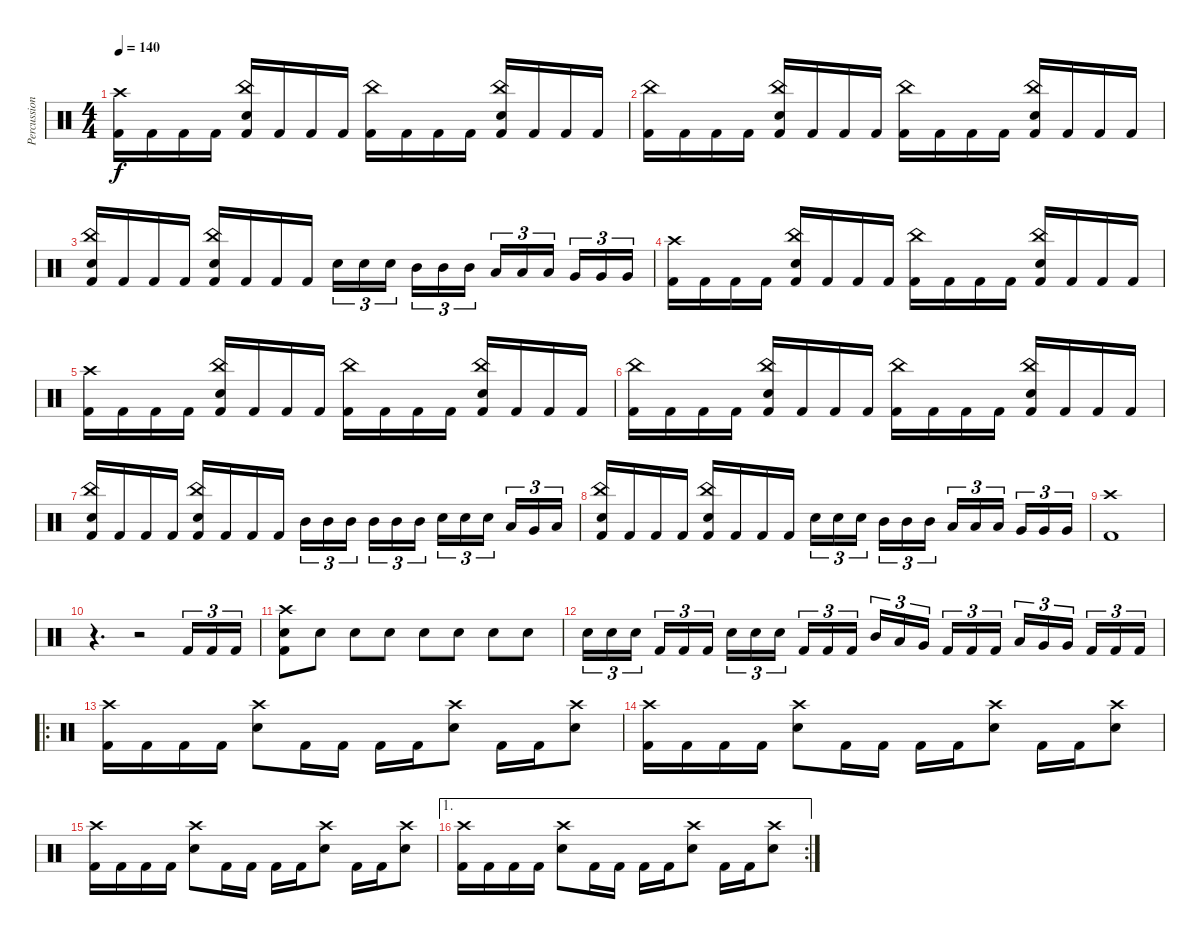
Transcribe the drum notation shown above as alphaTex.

\track ("Percussions" "Percussion") {instrument percussion}
\staff {score}
\articulation defaults
\ts (4 4)
\tempo 140
\clef neutral
\ks c
("Crash high (hit)" "Kick (hit) 2").16{dy f} "Kick (hit) 2".16 "Kick (hit) 2".16 "Kick (hit) 2".16 ("China (hit)" "Snare (hit) 2" "Kick (hit) 2").16 "Kick (hit) 2".16 "Kick (hit) 2".16 "Kick (hit) 2".16 ("China (hit)" "Kick (hit) 2").16 "Kick (hit) 2".16 "Kick (hit) 2".16 "Kick (hit) 2".16 ("China (hit)" "Snare (hit) 2" "Kick (hit) 2").16 "Kick (hit) 2".16 "Kick (hit) 2".16 "Kick (hit) 2".16 |
("China (hit)" "Kick (hit) 2").16 "Kick (hit) 2".16 "Kick (hit) 2".16 "Kick (hit) 2".16 ("China (hit)" "Snare (hit) 2" "Kick (hit) 2").16 "Kick (hit) 2".16 "Kick (hit) 2".16 "Kick (hit) 2".16 ("China (hit)" "Kick (hit) 2").16 "Kick (hit) 2".16 "Kick (hit) 2".16 "Kick (hit) 2".16 ("China (hit)" "Snare (hit) 2" "Kick (hit) 2").16 "Kick (hit) 2".16 "Kick (hit) 2".16 "Kick (hit) 2".16 |
("China (hit)" "Snare (hit) 2" "Kick (hit) 2").16 "Kick (hit) 2".16 "Kick (hit) 2".16 "Kick (hit) 2".16 ("China (hit)" "Snare (hit) 2" "Kick (hit) 2").16 "Kick (hit) 2".16 "Kick (hit) 2".16 "Kick (hit) 2".16 "Snare (hit) 2".16{tu (3 2)} "Snare (hit) 2".16{tu (3 2)} "Snare (hit) 2".16{tu (3 2)} "Mid Tom (hit)".16{tu (3 2)} "Mid Tom (hit)".16{tu (3 2)} "Mid Tom (hit)".16{tu (3 2)} "Low Tom (hit)".16{tu (3 2)} "Low Tom (hit)".16{tu (3 2)} "Low Tom (hit)".16{tu (3 2)} "Very Low Tom (hit)".16{tu (3 2)} "Very Low Tom (hit)".16{tu (3 2)} "Very Low Tom (hit)".16{tu (3 2)} |
("Crash high (hit)" "Kick (hit) 2").16 "Kick (hit) 2".16 "Kick (hit) 2".16 "Kick (hit) 2".16 ("China (hit)" "Snare (hit) 2" "Kick (hit) 2").16 "Kick (hit) 2".16 "Kick (hit) 2".16 "Kick (hit) 2".16 ("China (hit)" "Kick (hit) 2").16 "Kick (hit) 2".16 "Kick (hit) 2".16 "Kick (hit) 2".16 ("China (hit)" "Snare (hit) 2" "Kick (hit) 2").16 "Kick (hit) 2".16 "Kick (hit) 2".16 "Kick (hit) 2".16 |
("Crash high (hit)" "Kick (hit) 2").16 "Kick (hit) 2".16 "Kick (hit) 2".16 "Kick (hit) 2".16 ("China (hit)" "Snare (hit) 2" "Kick (hit) 2").16 "Kick (hit) 2".16 "Kick (hit) 2".16 "Kick (hit) 2".16 ("China (hit)" "Kick (hit) 2").16 "Kick (hit) 2".16 "Kick (hit) 2".16 "Kick (hit) 2".16 ("China (hit)" "Snare (hit) 2" "Kick (hit) 2").16 "Kick (hit) 2".16 "Kick (hit) 2".16 "Kick (hit) 2".16 |
("China (hit)" "Kick (hit) 2").16 "Kick (hit) 2".16 "Kick (hit) 2".16 "Kick (hit) 2".16 ("China (hit)" "Snare (hit) 2" "Kick (hit) 2").16 "Kick (hit) 2".16 "Kick (hit) 2".16 "Kick (hit) 2".16 ("China (hit)" "Kick (hit) 2").16 "Kick (hit) 2".16 "Kick (hit) 2".16 "Kick (hit) 2".16 ("China (hit)" "Snare (hit) 2" "Kick (hit) 2").16 "Kick (hit) 2".16 "Kick (hit) 2".16 "Kick (hit) 2".16 |
("China (hit)" "Snare (hit) 2" "Kick (hit) 2").16 "Kick (hit) 2".16 "Kick (hit) 2".16 "Kick (hit) 2".16 ("China (hit)" "Snare (hit) 2" "Kick (hit) 2").16 "Kick (hit) 2".16 "Kick (hit) 2".16 "Kick (hit) 2".16 "Mid Tom (hit)".16{tu (3 2)} "Mid Tom (hit)".16{tu (3 2)} "Mid Tom (hit)".16{tu (3 2)} "Mid Tom (hit)".16{tu (3 2)} "Mid Tom (hit)".16{tu (3 2)} "Mid Tom (hit)".16{tu (3 2)} "Snare (hit) 2".16{tu (3 2)} "Snare (hit) 2".16{tu (3 2)} "Snare (hit) 2".16{tu (3 2)} "Low Tom (hit)".16{tu (3 2)} "Very Low Tom (hit)".16{tu (3 2)} "Low Floor Tom (hit)".16{tu (3 2)} |
("China (hit)" "Snare (hit) 2" "Kick (hit) 2").16 "Kick (hit) 2".16 "Kick (hit) 2".16 "Kick (hit) 2".16 ("China (hit)" "Snare (hit) 2" "Kick (hit) 2").16 "Kick (hit) 2".16 "Kick (hit) 2".16 "Kick (hit) 2".16 "Snare (hit) 2".16{tu (3 2)} "Snare (hit) 2".16{tu (3 2)} "Snare (hit) 2".16{tu (3 2)} "Mid Tom (hit)".16{tu (3 2)} "Mid Tom (hit)".16{tu (3 2)} "Mid Tom (hit)".16{tu (3 2)} "Low Tom (hit)".16{tu (3 2)} "Low Tom (hit)".16{tu (3 2)} "Low Tom (hit)".16{tu (3 2)} "Very Low Tom (hit)".16{tu (3 2)} "Very Low Tom (hit)".16{tu (3 2)} "Very Low Tom (hit)".16{tu (3 2)} |
("Crash high (hit)" "Kick (hit) 2").1 |
r.4{d} r.2 "Kick (hit) 2".16{tu (3 2)} "Kick (hit) 2".16{tu (3 2)} "Kick (hit) 2".16{tu (3 2)} |
("Crash high (hit)" "Snare (hit) 2" "Kick (hit) 2").8 "Snare (hit) 2".8 "Snare (hit) 2".8 "Snare (hit) 2".8 "Snare (hit) 2".8 "Snare (hit) 2".8 "Snare (hit) 2".8 "Snare (hit) 2".8 |
"Snare (hit) 2".16{tu (3 2)} "Snare (hit) 2".16{tu (3 2)} "Snare (hit) 2".16{tu (3 2)} "Kick (hit) 2".16{tu (3 2)} "Kick (hit) 2".16{tu (3 2)} "Kick (hit) 2".16{tu (3 2)} "Snare (hit) 2".16{tu (3 2)} "Snare (hit) 2".16{tu (3 2)} "Snare (hit) 2".16{tu (3 2)} "Kick (hit) 2".16{tu (3 2)} "Kick (hit) 2".16{tu (3 2)} "Kick (hit) 2".16{tu (3 2)} "Mid Tom (hit)".16{tu (3 2)} "Low Tom (hit)".16{tu (3 2)} "Very Low Tom (hit)".16{tu (3 2)} "Kick (hit) 2".16{tu (3 2)} "Kick (hit) 2".16{tu (3 2)} "Kick (hit) 2".16{tu (3 2)} "Low Tom (hit)".16{tu (3 2)} "Very Low Tom (hit)".16{tu (3 2)} "Very Low Tom (hit)".16{tu (3 2)} "Kick (hit) 2".16{tu (3 2)} "Kick (hit) 2".16{tu (3 2)} "Kick (hit) 2".16{tu (3 2)} |
\ro
("Crash high (hit)" "Kick (hit) 2").16 "Kick (hit) 2".16 "Kick (hit) 2".16 "Kick (hit) 2".16 ("Crash high (hit)" "Snare (hit) 2").8 "Kick (hit) 2".16 "Kick (hit) 2".16 "Kick (hit) 2".16 "Kick (hit) 2".16 ("Crash high (hit)" "Snare (hit) 2").8 "Kick (hit) 2".16 "Kick (hit) 2".16 ("Crash high (hit)" "Snare (hit) 2").8 |
("Crash high (hit)" "Kick (hit) 2").16 "Kick (hit) 2".16 "Kick (hit) 2".16 "Kick (hit) 2".16 ("Crash high (hit)" "Snare (hit) 2").8 "Kick (hit) 2".16 "Kick (hit) 2".16 "Kick (hit) 2".16 "Kick (hit) 2".16 ("Crash high (hit)" "Snare (hit) 2").8 "Kick (hit) 2".16 "Kick (hit) 2".16 ("Crash high (hit)" "Snare (hit) 2").8 |
("Crash high (hit)" "Kick (hit) 2").16 "Kick (hit) 2".16 "Kick (hit) 2".16 "Kick (hit) 2".16 ("Crash high (hit)" "Snare (hit) 2").8 "Kick (hit) 2".16 "Kick (hit) 2".16 "Kick (hit) 2".16 "Kick (hit) 2".16 ("Crash high (hit)" "Snare (hit) 2").8 "Kick (hit) 2".16 "Kick (hit) 2".16 ("Crash high (hit)" "Snare (hit) 2").8 |
\ae 1
\rc 2
("Crash high (hit)" "Kick (hit) 2").16 "Kick (hit) 2".16 "Kick (hit) 2".16 "Kick (hit) 2".16 ("Crash high (hit)" "Snare (hit) 2").8 "Kick (hit) 2".16 "Kick (hit) 2".16 "Kick (hit) 2".16 "Kick (hit) 2".16 ("Crash high (hit)" "Snare (hit) 2").8 "Kick (hit) 2".16 "Kick (hit) 2".16 ("Crash high (hit)" "Snare (hit) 2").8
